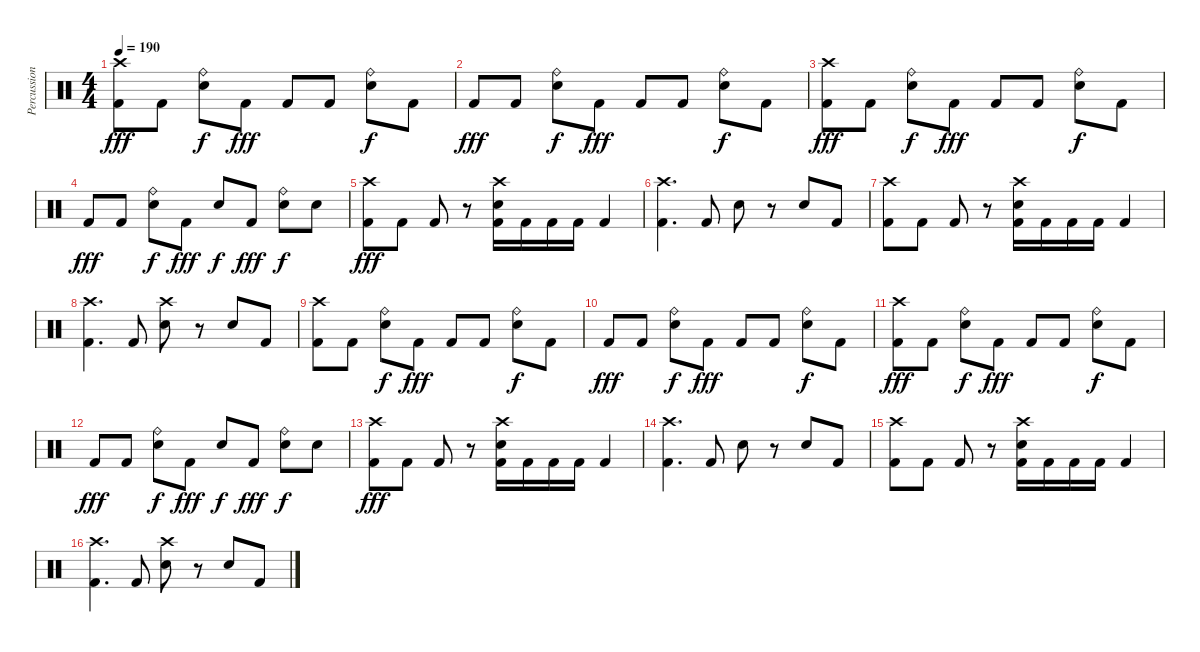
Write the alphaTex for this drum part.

\track ("Percussion" "Percussion") {instrument percussion}
\staff {score}
\articulation defaults
\ts (4 4)
\tempo 190
\clef neutral
\ks c
("Crash high (hit)" "Kick (hit) 2").8{dy fff} "Kick (hit) 2".8 ("Ride (bell)" "Electric Snare (hit)").8{dy f} "Kick (hit) 2".8{dy fff} "Kick (hit) 2".8 "Kick (hit) 2".8 ("Ride (bell)" "Electric Snare (hit)").8{dy f} "Kick (hit) 2".8 |
"Kick (hit) 2".8{dy fff} "Kick (hit) 2".8 ("Ride (bell)" "Electric Snare (hit)").8{dy f} "Kick (hit) 2".8{dy fff} "Kick (hit) 2".8 "Kick (hit) 2".8 ("Ride (bell)" "Electric Snare (hit)").8{dy f} "Kick (hit) 2".8 |
("Crash high (hit)" "Kick (hit) 2").8{dy fff} "Kick (hit) 2".8 ("Ride (bell)" "Electric Snare (hit)").8{dy f} "Kick (hit) 2".8{dy fff} "Kick (hit) 2".8 "Kick (hit) 2".8 ("Ride (bell)" "Electric Snare (hit)").8{dy f} "Kick (hit) 2".8 |
"Kick (hit) 2".8{dy fff} "Kick (hit) 2".8 ("Ride (bell)" "Electric Snare (hit)").8{dy f} "Kick (hit) 2".8{dy fff} "Electric Snare (hit)".8{dy f} "Kick (hit) 2".8{dy fff} ("Ride (bell)" "Electric Snare (hit)").8{dy f} "Electric Snare (hit)".8 |
("Crash high (hit)" "Kick (hit) 2").8{dy fff} "Kick (hit) 2".8 "Kick (hit) 2".8 r.8 ("Crash high (hit)" "Electric Snare (hit)" "Kick (hit) 2").16 "Kick (hit) 2".16 "Kick (hit) 2".16 "Kick (hit) 2".16 "Kick (hit) 2".4 |
("Crash high (hit)" "Kick (hit) 2").4{d} "Kick (hit) 2".8 "Electric Snare (hit)".8 r.8 "Electric Snare (hit)".8 "Kick (hit) 2".8 |
("Crash high (hit)" "Kick (hit) 2").8 "Kick (hit) 2".8 "Kick (hit) 2".8 r.8 ("Crash high (hit)" "Electric Snare (hit)" "Kick (hit) 2").16 "Kick (hit) 2".16 "Kick (hit) 2".16 "Kick (hit) 2".16 "Kick (hit) 2".4 |
("Crash high (hit)" "Kick (hit) 2").4{d} "Kick (hit) 2".8 ("Crash high (hit)" "Electric Snare (hit)").8 r.8 "Electric Snare (hit)".8 "Kick (hit) 2".8 |
("Crash high (hit)" "Kick (hit) 2").8 "Kick (hit) 2".8 ("Ride (bell)" "Electric Snare (hit)").8{dy f} "Kick (hit) 2".8{dy fff} "Kick (hit) 2".8 "Kick (hit) 2".8 ("Ride (bell)" "Electric Snare (hit)").8{dy f} "Kick (hit) 2".8 |
"Kick (hit) 2".8{dy fff} "Kick (hit) 2".8 ("Ride (bell)" "Electric Snare (hit)").8{dy f} "Kick (hit) 2".8{dy fff} "Kick (hit) 2".8 "Kick (hit) 2".8 ("Ride (bell)" "Electric Snare (hit)").8{dy f} "Kick (hit) 2".8 |
("Crash high (hit)" "Kick (hit) 2").8{dy fff} "Kick (hit) 2".8 ("Ride (bell)" "Electric Snare (hit)").8{dy f} "Kick (hit) 2".8{dy fff} "Kick (hit) 2".8 "Kick (hit) 2".8 ("Ride (bell)" "Electric Snare (hit)").8{dy f} "Kick (hit) 2".8 |
"Kick (hit) 2".8{dy fff} "Kick (hit) 2".8 ("Ride (bell)" "Electric Snare (hit)").8{dy f} "Kick (hit) 2".8{dy fff} "Electric Snare (hit)".8{dy f} "Kick (hit) 2".8{dy fff} ("Ride (bell)" "Electric Snare (hit)").8{dy f} "Electric Snare (hit)".8 |
("Crash high (hit)" "Kick (hit) 2").8{dy fff} "Kick (hit) 2".8 "Kick (hit) 2".8 r.8 ("Crash high (hit)" "Electric Snare (hit)" "Kick (hit) 2").16 "Kick (hit) 2".16 "Kick (hit) 2".16 "Kick (hit) 2".16 "Kick (hit) 2".4 |
("Crash high (hit)" "Kick (hit) 2").4{d} "Kick (hit) 2".8 "Electric Snare (hit)".8 r.8 "Electric Snare (hit)".8 "Kick (hit) 2".8 |
("Crash high (hit)" "Kick (hit) 2").8 "Kick (hit) 2".8 "Kick (hit) 2".8 r.8 ("Crash high (hit)" "Electric Snare (hit)" "Kick (hit) 2").16 "Kick (hit) 2".16 "Kick (hit) 2".16 "Kick (hit) 2".16 "Kick (hit) 2".4 |
("Crash high (hit)" "Kick (hit) 2").4{d} "Kick (hit) 2".8 ("Crash high (hit)" "Electric Snare (hit)").8 r.8 "Electric Snare (hit)".8 "Kick (hit) 2".8
